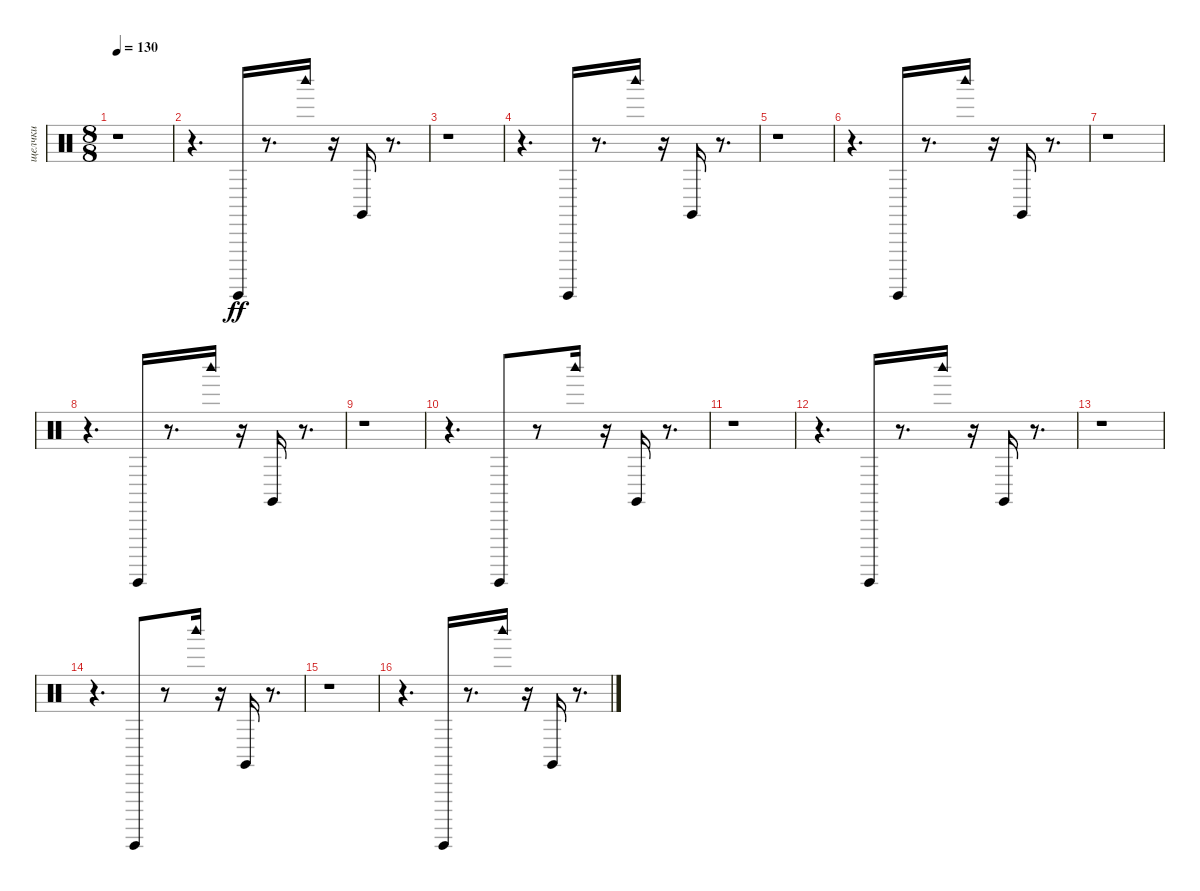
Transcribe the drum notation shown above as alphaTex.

\track ("щелчки" "щелчки") {instrument percussion}
\staff {score}
\articulation defaults
\ts (8 8)
\tempo 130
\clef neutral
\ks c
r.1{dy ff} |
r.4{d} "Guiro (hit)".16 r.8{d} "Woodblock high (hit)".16 r.16 "Claves (hit)".16 r.8{d} |
r.1 |
r.4{d} "Guiro (hit)".16 r.8{d} "Woodblock high (hit)".16 r.16 "Claves (hit)".16 r.8{d} |
r.1 |
r.4{d} "Guiro (hit)".16 r.8{d} "Woodblock high (hit)".16 r.16 "Claves (hit)".16 r.8{d} |
r.1 |
r.4{d} "Guiro (hit)".16 r.8{d} "Woodblock high (hit)".16 r.16 "Claves (hit)".16 r.8{d} |
r.1 |
r.4{d} "Guiro (hit)".8 r.8 "Woodblock high (hit)".16 r.16 "Claves (hit)".16 r.8{d} |
r.1 |
r.4{d} "Guiro (hit)".16 r.8{d} "Woodblock high (hit)".16 r.16 "Claves (hit)".16 r.8{d} |
r.1 |
r.4{d} "Guiro (hit)".8 r.8 "Woodblock high (hit)".16 r.16 "Claves (hit)".16 r.8{d} |
r.1 |
r.4{d} "Guiro (hit)".16 r.8{d} "Woodblock high (hit)".16 r.16 "Claves (hit)".16 r.8{d}
